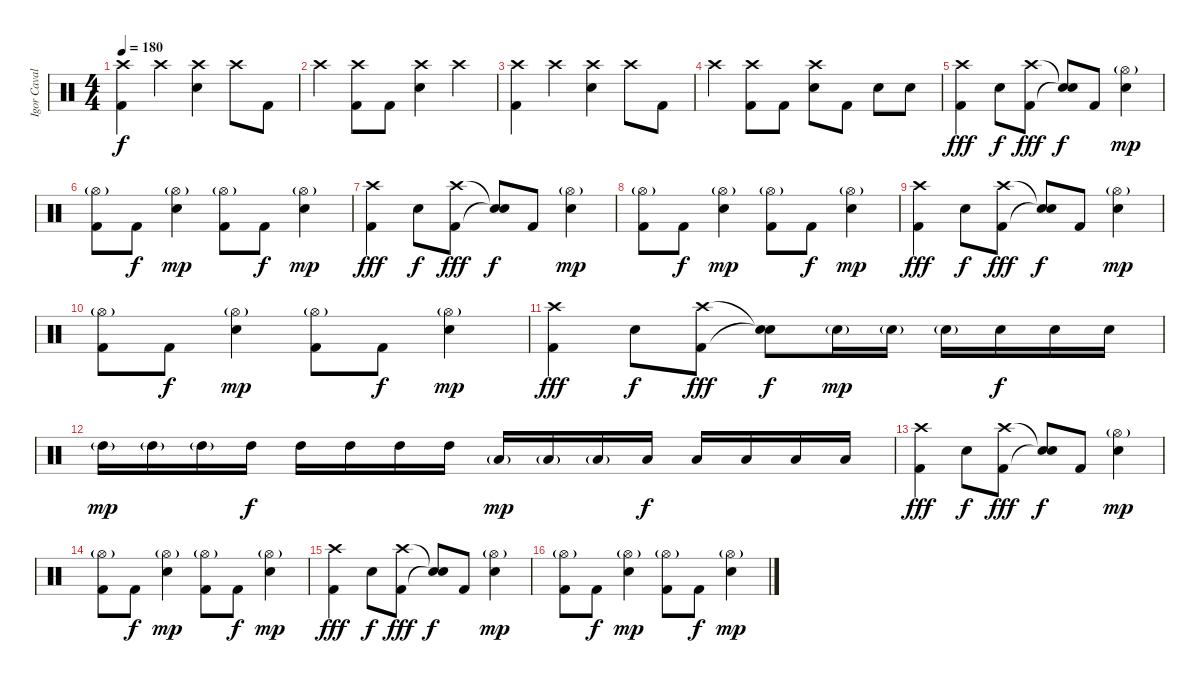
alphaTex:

\track ("Igor Cavalera" "Igor Caval") {instrument percussion}
\staff {score}
\articulation defaults
\ts (4 4)
\tempo 180
\clef neutral
\ks c
("Crash high (hit)" "Kick (hit) 2").4{dy f} "Crash high (hit)".4 ("Crash high (hit)" "Electric Snare (hit)").4 "Crash high (hit)".8 "Kick (hit) 2".8 |
"Crash high (hit)".4 ("Crash high (hit)" "Kick (hit) 2").8 "Kick (hit) 2".8 ("Crash high (hit)" "Electric Snare (hit)").4 "Crash high (hit)".4 |
("Crash high (hit)" "Kick (hit) 2").4 "Crash high (hit)".4 ("Crash high (hit)" "Electric Snare (hit)").4 "Crash high (hit)".8 "Kick (hit) 2".8 |
"Crash high (hit)".4 ("Crash high (hit)" "Kick (hit) 2").8 "Kick (hit) 2".8 ("Crash high (hit)" "Electric Snare (hit)").8 "Kick (hit) 2".8 "Electric Snare (hit)".8 "Electric Snare (hit)".8 |
("Crash high (hit)" "Kick (hit) 2").4{dy fff} "Electric Snare (hit)".8{dy f} ("Crash high (hit)" "Kick (hit) 2").8{dy fff} ("Snare (hit)"{t} "Snare (hit)"{t}).8{dy f} "Kick (hit) 2".8 ("Hi-Hat (open)"{g} "Electric Snare (hit)").4{dy mp} |
("Hi-Hat (open)"{g} "Kick (hit) 2").8 "Kick (hit) 2".8{dy f} ("Hi-Hat (open)"{g} "Electric Snare (hit)").4{dy mp} ("Hi-Hat (open)"{g} "Kick (hit) 2").8 "Kick (hit) 2".8{dy f} ("Hi-Hat (open)"{g} "Electric Snare (hit)").4{dy mp} |
("Crash high (hit)" "Kick (hit) 2").4{dy fff} "Electric Snare (hit)".8{dy f} ("Crash high (hit)" "Kick (hit) 2").8{dy fff} ("Snare (hit)"{t} "Snare (hit)"{t}).8{dy f} "Kick (hit) 2".8 ("Hi-Hat (open)"{g} "Electric Snare (hit)").4{dy mp} |
("Hi-Hat (open)"{g} "Kick (hit) 2").8 "Kick (hit) 2".8{dy f} ("Hi-Hat (open)"{g} "Electric Snare (hit)").4{dy mp} ("Hi-Hat (open)"{g} "Kick (hit) 2").8 "Kick (hit) 2".8{dy f} ("Hi-Hat (open)"{g} "Electric Snare (hit)").4{dy mp} |
("Crash high (hit)" "Kick (hit) 2").4{dy fff} "Electric Snare (hit)".8{dy f} ("Crash high (hit)" "Kick (hit) 2").8{dy fff} ("Snare (hit)"{t} "Snare (hit)"{t}).8{dy f} "Kick (hit) 2".8 ("Hi-Hat (open)"{g} "Electric Snare (hit)").4{dy mp} |
("Hi-Hat (open)"{g} "Kick (hit) 2").8 "Kick (hit) 2".8{dy f} ("Hi-Hat (open)"{g} "Electric Snare (hit)").4{dy mp} ("Hi-Hat (open)"{g} "Kick (hit) 2").8 "Kick (hit) 2".8{dy f} ("Hi-Hat (open)"{g} "Electric Snare (hit)").4{dy mp} |
("Crash high (hit)" "Kick (hit) 2").4{dy fff} "Electric Snare (hit)".8{dy f} ("Crash high (hit)" "Kick (hit) 2").8{dy fff} ("Snare (hit)"{t} "Snare (hit)"{t}).8{dy f} "Electric Snare (hit)"{g}.16{dy mp} "Electric Snare (hit)"{g}.16 "Electric Snare (hit)"{g}.16 "Electric Snare (hit)".16{dy f} "Electric Snare (hit)".16 "Electric Snare (hit)".16 |
"High Tom (hit)"{g}.16{dy mp} "High Tom (hit)"{g}.16 "High Tom (hit)"{g}.16 "High Tom (hit)".16{dy f} "High Tom (hit)".16 "High Tom (hit)".16 "High Tom (hit)".16 "High Tom (hit)".16 "Low Tom (hit)"{g}.16{dy mp} "Low Tom (hit)"{g}.16 "Low Tom (hit)"{g}.16 "Low Tom (hit)".16{dy f} "Low Tom (hit)".16 "Low Tom (hit)".16 "Low Tom (hit)".16 "Low Tom (hit)".16 |
("Crash high (hit)" "Kick (hit) 2").4{dy fff} "Electric Snare (hit)".8{dy f} ("Crash high (hit)" "Kick (hit) 2").8{dy fff} ("Snare (hit)"{t} "Snare (hit)"{t}).8{dy f} "Kick (hit) 2".8 ("Hi-Hat (open)"{g} "Electric Snare (hit)").4{dy mp} |
("Hi-Hat (open)"{g} "Kick (hit) 2").8 "Kick (hit) 2".8{dy f} ("Hi-Hat (open)"{g} "Electric Snare (hit)").4{dy mp} ("Hi-Hat (open)"{g} "Kick (hit) 2").8 "Kick (hit) 2".8{dy f} ("Hi-Hat (open)"{g} "Electric Snare (hit)").4{dy mp} |
("Crash high (hit)" "Kick (hit) 2").4{dy fff} "Electric Snare (hit)".8{dy f} ("Crash high (hit)" "Kick (hit) 2").8{dy fff} ("Snare (hit)"{t} "Snare (hit)"{t}).8{dy f} "Kick (hit) 2".8 ("Hi-Hat (open)"{g} "Electric Snare (hit)").4{dy mp} |
("Hi-Hat (open)"{g} "Kick (hit) 2").8 "Kick (hit) 2".8{dy f} ("Hi-Hat (open)"{g} "Electric Snare (hit)").4{dy mp} ("Hi-Hat (open)"{g} "Kick (hit) 2").8 "Kick (hit) 2".8{dy f} ("Hi-Hat (open)"{g} "Electric Snare (hit)").4{dy mp}
